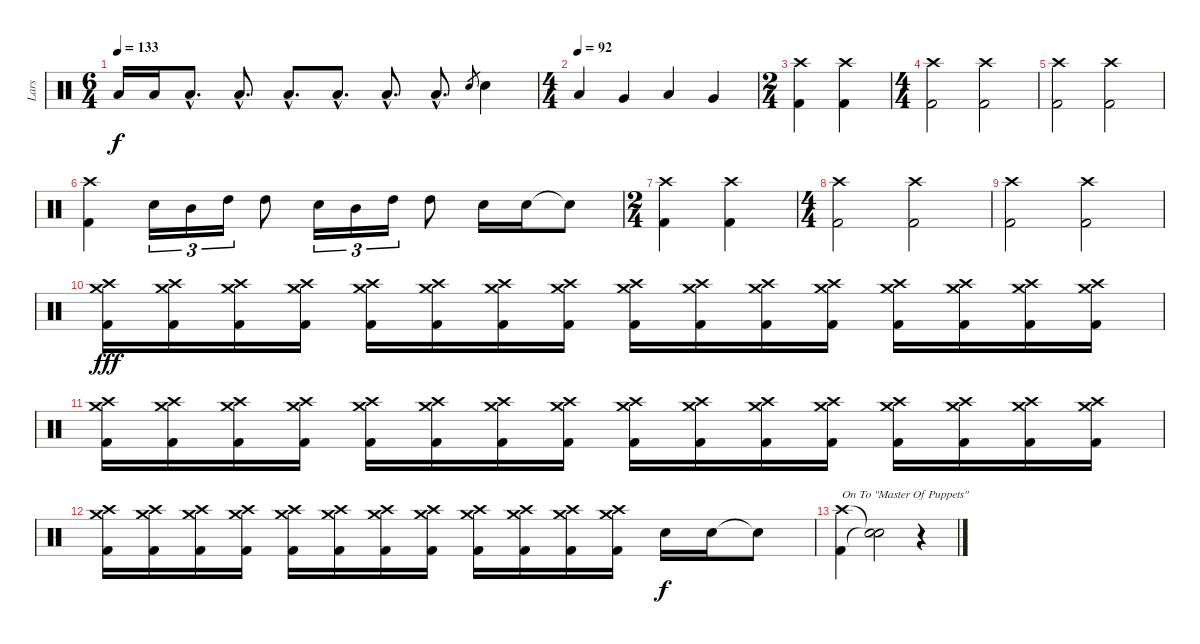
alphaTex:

\track ("Lars" "Lars") {instrument percussion}
\staff {score}
\articulation defaults
\ts (6 4)
\tempo 133
\clef neutral
\ks c "Low Floor Tom (hit)".16{dy f} "Low Floor Tom (hit)".16 "Low Floor Tom (hit)"{hac}.8{d} "Low Floor Tom (hit)"{hac}.8{d} "Low Floor Tom (hit)"{hac}.8{d} "Low Floor Tom (hit)"{hac}.8{d} "Low Floor Tom (hit)"{hac}.8{d} "Low Floor Tom (hit)"{hac}.8{d} "Electric Snare (hit)".8{gr} "Electric Snare (hit)".4
|
\ts (4 4)
\tempo (92)
"Low Tom (hit)".4 "Very Low Tom (hit)".4 "Low Tom (hit)".4 "Very Low Tom (hit)".4 |
\ts (2 4)
("Crash high (hit)" "Kick (hit) 2").4 ("Crash high (hit)" "Kick (hit) 2").4 |
\ts (4 4)
("Crash high (hit)" "Kick (hit) 2").2 ("Crash high (hit)" "Kick (hit) 2").2 |
("Crash high (hit)" "Kick (hit) 2").2 ("Crash high (hit)" "Kick (hit) 2").2 |
("Crash high (hit)" "Kick (hit) 2").4 "Electric Snare (hit)".16{tu (3 2)} "Mid Tom (hit)".16{tu (3 2)} "High Tom (hit)".16{tu (3 2)} "High Tom (hit)".8 "Electric Snare (hit)".16{tu (3 2)} "Mid Tom (hit)".16{tu (3 2)} "High Tom (hit)".16{tu (3 2)} "High Tom (hit)".8 "Electric Snare (hit)".16 "Electric Snare (hit)".16 "Snare (hit)"{t}.8 |
\ts (2 4)
("Crash high (hit)" "Kick (hit) 2").4 ("Crash high (hit)" "Kick (hit) 2").4 |
\ts (4 4)
("Crash high (hit)" "Kick (hit) 2").2 ("Crash high (hit)" "Kick (hit) 2").2 |
("Crash high (hit)" "Kick (hit) 2").2 ("Crash high (hit)" "Kick (hit) 2").2 |
("Crash high (hit)" "Kick (hit) 2" "Crash medium (hit)").16{dy fff} ("Crash high (hit)" "Kick (hit) 2" "Crash medium (hit)").16 ("Crash high (hit)" "Kick (hit) 2" "Crash medium (hit)").16 ("Crash high (hit)" "Kick (hit) 2" "Crash medium (hit)").16 ("Crash high (hit)" "Kick (hit) 2" "Crash medium (hit)").16 ("Crash high (hit)" "Kick (hit) 2" "Crash medium (hit)").16 ("Crash high (hit)" "Kick (hit) 2" "Crash medium (hit)").16 ("Crash high (hit)" "Kick (hit) 2" "Crash medium (hit)").16 ("Crash high (hit)" "Kick (hit) 2" "Crash medium (hit)").16 ("Crash high (hit)" "Kick (hit) 2" "Crash medium (hit)").16 ("Crash high (hit)" "Kick (hit) 2" "Crash medium (hit)").16 ("Crash high (hit)" "Kick (hit) 2" "Crash medium (hit)").16 ("Crash high (hit)" "Kick (hit) 2" "Crash medium (hit)").16 ("Crash high (hit)" "Kick (hit) 2" "Crash medium (hit)").16 ("Crash high (hit)" "Kick (hit) 2" "Crash medium (hit)").16 ("Crash high (hit)" "Kick (hit) 2" "Crash medium (hit)").16 |
("Crash high (hit)" "Kick (hit) 2" "Crash medium (hit)").16 ("Crash high (hit)" "Kick (hit) 2" "Crash medium (hit)").16 ("Crash high (hit)" "Kick (hit) 2" "Crash medium (hit)").16 ("Crash high (hit)" "Kick (hit) 2" "Crash medium (hit)").16 ("Crash high (hit)" "Kick (hit) 2" "Crash medium (hit)").16 ("Crash high (hit)" "Kick (hit) 2" "Crash medium (hit)").16 ("Crash high (hit)" "Kick (hit) 2" "Crash medium (hit)").16 ("Crash high (hit)" "Kick (hit) 2" "Crash medium (hit)").16 ("Crash high (hit)" "Kick (hit) 2" "Crash medium (hit)").16 ("Crash high (hit)" "Kick (hit) 2" "Crash medium (hit)").16 ("Crash high (hit)" "Kick (hit) 2" "Crash medium (hit)").16 ("Crash high (hit)" "Kick (hit) 2" "Crash medium (hit)").16 ("Crash high (hit)" "Kick (hit) 2" "Crash medium (hit)").16 ("Crash high (hit)" "Kick (hit) 2" "Crash medium (hit)").16 ("Crash high (hit)" "Kick (hit) 2" "Crash medium (hit)").16 ("Crash high (hit)" "Kick (hit) 2" "Crash medium (hit)").16 |
("Crash high (hit)" "Kick (hit) 2" "Crash medium (hit)").16 ("Crash high (hit)" "Kick (hit) 2" "Crash medium (hit)").16 ("Crash high (hit)" "Kick (hit) 2" "Crash medium (hit)").16 ("Crash high (hit)" "Kick (hit) 2" "Crash medium (hit)").16 ("Crash high (hit)" "Kick (hit) 2" "Crash medium (hit)").16 ("Crash high (hit)" "Kick (hit) 2" "Crash medium (hit)").16 ("Crash high (hit)" "Kick (hit) 2" "Crash medium (hit)").16 ("Crash high (hit)" "Kick (hit) 2" "Crash medium (hit)").16 ("Crash high (hit)" "Kick (hit) 2" "Crash medium (hit)").16 ("Crash high (hit)" "Kick (hit) 2" "Crash medium (hit)").16 ("Crash high (hit)" "Kick (hit) 2" "Crash medium (hit)").16 ("Crash high (hit)" "Kick (hit) 2" "Crash medium (hit)").16 "Electric Snare (hit)".16{dy f} "Electric Snare (hit)".16 "Snare (hit)"{t}.8 |
("Crash high (hit)" "Kick (hit) 2").4{txt "On To \"Master Of Puppets\""} ("Snare (hit)"{t} "Snare (hit)"{t}).2 r.4
